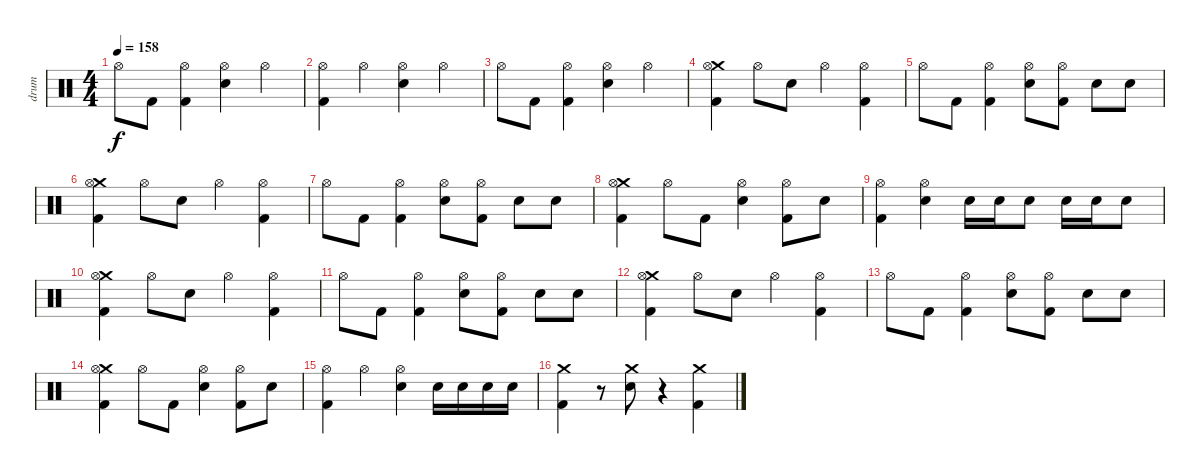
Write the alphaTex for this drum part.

\track ("drum" "drum") {instrument percussion}
\staff {score}
\articulation defaults
\ts (4 4)
\tempo 158
\clef neutral
\ks c "Hi-Hat (open)".8{dy f} "Kick (hit) 2".8
("Hi-Hat (open)" "Kick (hit) 2").4 ("Hi-Hat (open)" "Electric Snare (hit)").4 "Hi-Hat (open)".4 |
("Hi-Hat (open)" "Kick (hit) 2").4 "Hi-Hat (open)".4 ("Hi-Hat (open)" "Electric Snare (hit)").4 "Hi-Hat (open)".4 |
"Hi-Hat (open)".8 "Kick (hit) 2".8 ("Hi-Hat (open)" "Kick (hit) 2").4 ("Hi-Hat (open)" "Electric Snare (hit)").4 "Hi-Hat (open)".4 |
("Crash medium (hit)" "Hi-Hat (open)" "Kick (hit) 2").4 "Hi-Hat (open)".8 "Electric Snare (hit)".8 "Hi-Hat (open)".4 ("Hi-Hat (open)" "Kick (hit) 2").4 |
"Hi-Hat (open)".8 "Kick (hit) 2".8 ("Hi-Hat (open)" "Kick (hit) 2").4 ("Hi-Hat (open)" "Electric Snare (hit)").8 ("Hi-Hat (open)" "Kick (hit) 2").8 "Electric Snare (hit)".8 "Electric Snare (hit)".8 |
("Crash medium (hit)" "Hi-Hat (open)" "Kick (hit) 2").4 "Hi-Hat (open)".8 "Electric Snare (hit)".8 "Hi-Hat (open)".4 ("Hi-Hat (open)" "Kick (hit) 2").4 |
"Hi-Hat (open)".8 "Kick (hit) 2".8 ("Hi-Hat (open)" "Kick (hit) 2").4 ("Hi-Hat (open)" "Electric Snare (hit)").8 ("Hi-Hat (open)" "Kick (hit) 2").8 "Electric Snare (hit)".8 "Electric Snare (hit)".8 |
("Crash medium (hit)" "Hi-Hat (open)" "Kick (hit) 2").4 "Hi-Hat (open)".8 "Kick (hit) 2".8 ("Hi-Hat (open)" "Electric Snare (hit)").4 ("Hi-Hat (open)" "Kick (hit) 2").8 "Electric Snare (hit)".8 |
("Hi-Hat (open)" "Kick (hit) 2").4 ("Hi-Hat (open)" "Electric Snare (hit)").4 "Electric Snare (hit)".16 "Electric Snare (hit)".16 "Electric Snare (hit)".8 "Electric Snare (hit)".16 "Electric Snare (hit)".16 "Electric Snare (hit)".8 |
("Crash medium (hit)" "Hi-Hat (open)" "Kick (hit) 2").4 "Hi-Hat (open)".8 "Electric Snare (hit)".8 "Hi-Hat (open)".4 ("Hi-Hat (open)" "Kick (hit) 2").4 |
"Hi-Hat (open)".8 "Kick (hit) 2".8 ("Hi-Hat (open)" "Kick (hit) 2").4 ("Hi-Hat (open)" "Electric Snare (hit)").8 ("Hi-Hat (open)" "Kick (hit) 2").8 "Electric Snare (hit)".8 "Electric Snare (hit)".8 |
("Crash medium (hit)" "Hi-Hat (open)" "Kick (hit) 2").4 "Hi-Hat (open)".8 "Electric Snare (hit)".8 "Hi-Hat (open)".4 ("Hi-Hat (open)" "Kick (hit) 2").4 |
"Hi-Hat (open)".8 "Kick (hit) 2".8 ("Hi-Hat (open)" "Kick (hit) 2").4 ("Hi-Hat (open)" "Electric Snare (hit)").8 ("Hi-Hat (open)" "Kick (hit) 2").8 "Electric Snare (hit)".8 "Electric Snare (hit)".8 |
("Crash medium (hit)" "Hi-Hat (open)" "Kick (hit) 2").4 "Hi-Hat (open)".8 "Kick (hit) 2".8 ("Hi-Hat (open)" "Electric Snare (hit)").4 ("Hi-Hat (open)" "Kick (hit) 2").8 "Electric Snare (hit)".8 |
("Hi-Hat (open)" "Kick (hit) 2").4 "Hi-Hat (open)".4 ("Hi-Hat (open)" "Electric Snare (hit)").4 "Electric Snare (hit)".16 "Electric Snare (hit)".16 "Electric Snare (hit)".16 "Electric Snare (hit)".16 |
("Crash medium (hit)" "Kick (hit) 2").4 r.8 ("Crash medium (hit)" "Electric Snare (hit)").8 r.4 ("Crash medium (hit)" "Kick (hit) 2").4
